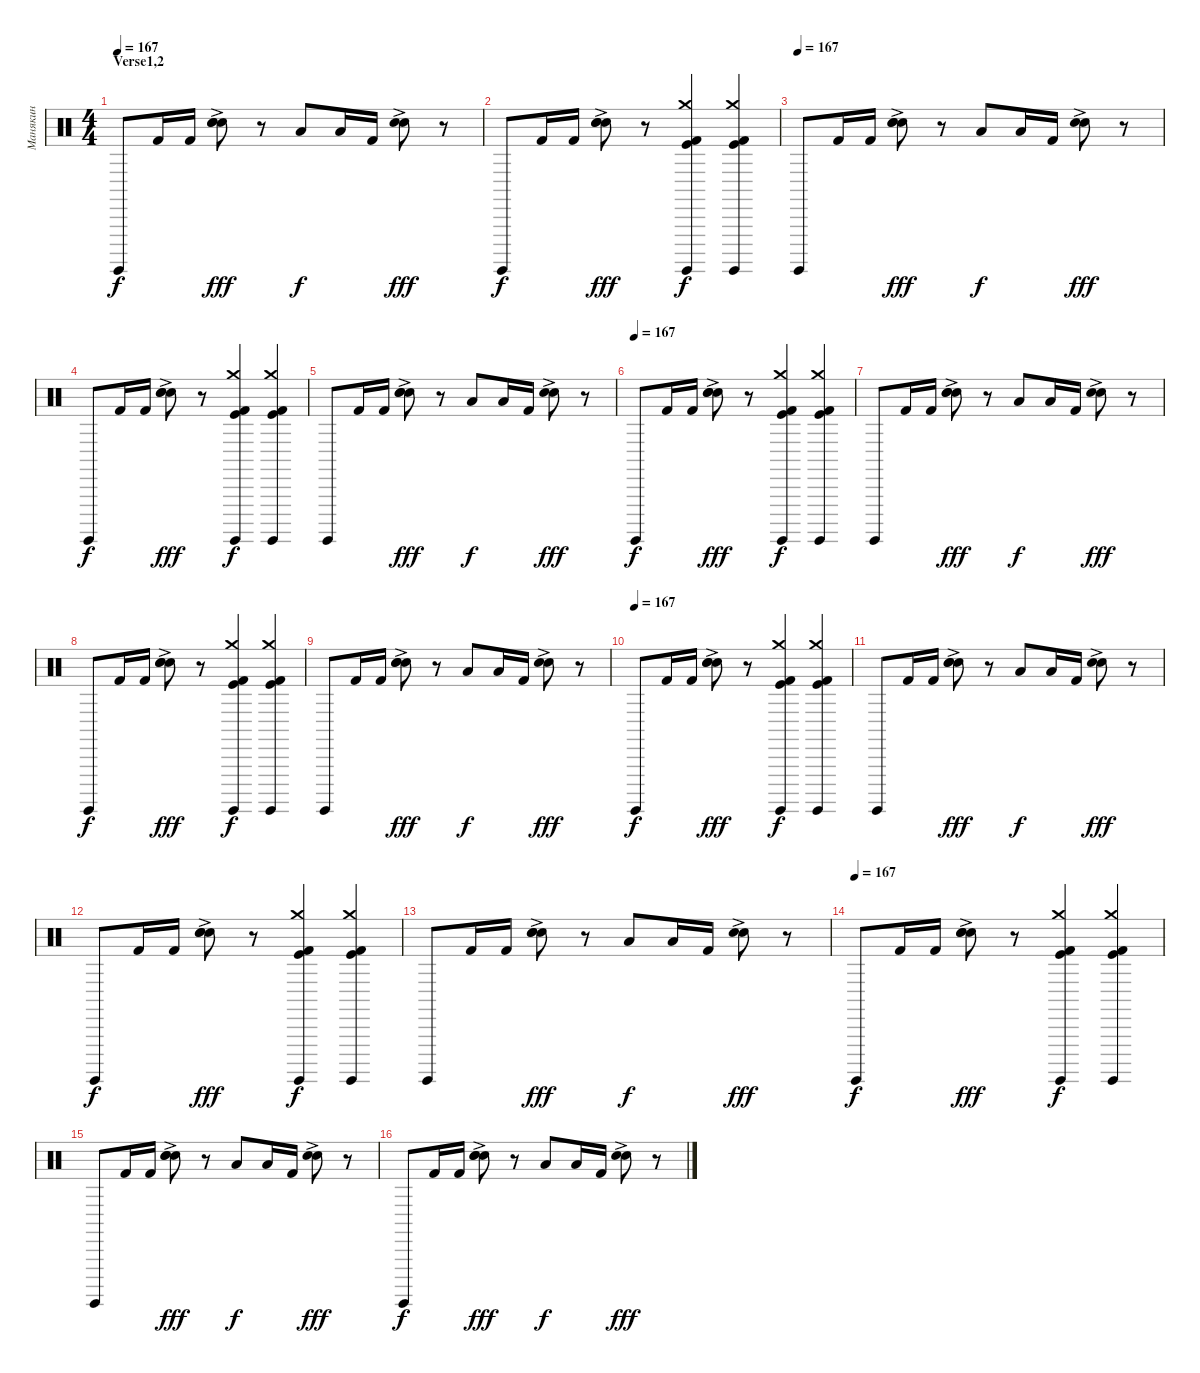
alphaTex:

\track ("Манякин" "Манякин") {instrument percussion}
\staff {score}
\articulation defaults
\ts (4 4)
\section ("" "Verse1,2")
\tempo 167
\clef neutral
\ks c "Surdo (hit)".8{dy f} "Kick (hit) 2".16 "Kick (hit) 2".16
("Electric Snare (hit)"{ac} "Snare (hit) 2" "Electric Snare (hit)").8{dy fff} r.8 "Low Tom (hit)".8{dy f} "Low Tom (hit)".16 "Kick (hit) 2".16 ("Electric Snare (hit)"{ac} "Snare (hit) 2").8{dy fff} r.8 |
"Surdo (hit)".8{dy f} "Kick (hit) 2".16 "Kick (hit) 2".16 ("Electric Snare (hit)"{ac} "Snare (hit) 2" "Electric Snare (hit)").8{dy fff} r.8 ("Kick (hit)" "Crash medium (hit)" "Kick (hit) 2" "Surdo (hit)").4{dy f} ("Kick (hit)" "Crash medium (hit)" "Kick (hit) 2" "Surdo (hit)").4 |
\tempo (167)
"Surdo (hit)".8 "Kick (hit) 2".16 "Kick (hit) 2".16 ("Electric Snare (hit)"{ac} "Snare (hit) 2" "Electric Snare (hit)").8{dy fff} r.8 "Low Tom (hit)".8{dy f} "Low Tom (hit)".16 "Kick (hit) 2".16 ("Electric Snare (hit)"{ac} "Snare (hit) 2").8{dy fff} r.8 |
"Surdo (hit)".8{dy f} "Kick (hit) 2".16 "Kick (hit) 2".16 ("Electric Snare (hit)"{ac} "Snare (hit) 2" "Electric Snare (hit)").8{dy fff} r.8 ("Kick (hit)" "Crash medium (hit)" "Kick (hit) 2" "Surdo (hit)").4{dy f} ("Kick (hit)" "Crash medium (hit)" "Kick (hit) 2" "Surdo (hit)").4 |
"Surdo (hit)".8 "Kick (hit) 2".16 "Kick (hit) 2".16 ("Electric Snare (hit)"{ac} "Snare (hit) 2" "Electric Snare (hit)").8{dy fff} r.8 "Low Tom (hit)".8{dy f} "Low Tom (hit)".16 "Kick (hit) 2".16 ("Electric Snare (hit)"{ac} "Snare (hit) 2").8{dy fff} r.8 |
\tempo (167)
"Surdo (hit)".8{dy f} "Kick (hit) 2".16 "Kick (hit) 2".16 ("Electric Snare (hit)"{ac} "Snare (hit) 2" "Electric Snare (hit)").8{dy fff} r.8 ("Kick (hit)" "Crash medium (hit)" "Kick (hit) 2" "Surdo (hit)").4{dy f} ("Kick (hit)" "Crash medium (hit)" "Kick (hit) 2" "Surdo (hit)").4 |
"Surdo (hit)".8 "Kick (hit) 2".16 "Kick (hit) 2".16 ("Electric Snare (hit)"{ac} "Snare (hit) 2" "Electric Snare (hit)").8{dy fff} r.8 "Low Tom (hit)".8{dy f} "Low Tom (hit)".16 "Kick (hit) 2".16 ("Electric Snare (hit)"{ac} "Snare (hit) 2").8{dy fff} r.8 |
"Surdo (hit)".8{dy f} "Kick (hit) 2".16 "Kick (hit) 2".16 ("Electric Snare (hit)"{ac} "Snare (hit) 2" "Electric Snare (hit)").8{dy fff} r.8 ("Kick (hit)" "Crash medium (hit)" "Kick (hit) 2" "Surdo (hit)").4{dy f} ("Kick (hit)" "Crash medium (hit)" "Kick (hit) 2" "Surdo (hit)").4 |
"Surdo (hit)".8 "Kick (hit) 2".16 "Kick (hit) 2".16 ("Electric Snare (hit)"{ac} "Snare (hit) 2" "Electric Snare (hit)").8{dy fff} r.8 "Low Tom (hit)".8{dy f} "Low Tom (hit)".16 "Kick (hit) 2".16 ("Electric Snare (hit)"{ac} "Snare (hit) 2").8{dy fff} r.8 |
\tempo (167)
"Surdo (hit)".8{dy f} "Kick (hit) 2".16 "Kick (hit) 2".16 ("Electric Snare (hit)"{ac} "Snare (hit) 2" "Electric Snare (hit)").8{dy fff} r.8 ("Kick (hit)" "Crash medium (hit)" "Kick (hit) 2" "Surdo (hit)").4{dy f} ("Kick (hit)" "Crash medium (hit)" "Kick (hit) 2" "Surdo (hit)").4 |
"Surdo (hit)".8 "Kick (hit) 2".16 "Kick (hit) 2".16 ("Electric Snare (hit)"{ac} "Snare (hit) 2" "Electric Snare (hit)").8{dy fff} r.8 "Low Tom (hit)".8{dy f} "Low Tom (hit)".16 "Kick (hit) 2".16 ("Electric Snare (hit)"{ac} "Snare (hit) 2").8{dy fff} r.8 |
"Surdo (hit)".8{dy f} "Kick (hit) 2".16 "Kick (hit) 2".16 ("Electric Snare (hit)"{ac} "Snare (hit) 2" "Electric Snare (hit)").8{dy fff} r.8 ("Kick (hit)" "Crash medium (hit)" "Kick (hit) 2" "Surdo (hit)").4{dy f} ("Kick (hit)" "Crash medium (hit)" "Kick (hit) 2" "Surdo (hit)").4 |
"Surdo (hit)".8 "Kick (hit) 2".16 "Kick (hit) 2".16 ("Electric Snare (hit)"{ac} "Snare (hit) 2" "Electric Snare (hit)").8{dy fff} r.8 "Low Tom (hit)".8{dy f} "Low Tom (hit)".16 "Kick (hit) 2".16 ("Electric Snare (hit)"{ac} "Snare (hit) 2").8{dy fff} r.8 |
\tempo (167)
"Surdo (hit)".8{dy f} "Kick (hit) 2".16 "Kick (hit) 2".16 ("Electric Snare (hit)"{ac} "Snare (hit) 2" "Electric Snare (hit)").8{dy fff} r.8 ("Kick (hit)" "Crash medium (hit)" "Kick (hit) 2" "Surdo (hit)").4{dy f} ("Kick (hit)" "Crash medium (hit)" "Kick (hit) 2" "Surdo (hit)").4 |
"Surdo (hit)".8 "Kick (hit) 2".16 "Kick (hit) 2".16 ("Electric Snare (hit)"{ac} "Snare (hit) 2" "Electric Snare (hit)").8{dy fff} r.8 "Low Tom (hit)".8{dy f} "Low Tom (hit)".16 "Kick (hit) 2".16 ("Electric Snare (hit)"{ac} "Snare (hit) 2").8{dy fff} r.8 |
"Surdo (hit)".8{dy f} "Kick (hit) 2".16 "Kick (hit) 2".16 ("Electric Snare (hit)"{ac} "Snare (hit) 2" "Electric Snare (hit)").8{dy fff} r.8 "Low Tom (hit)".8{dy f} "Low Tom (hit)".16 "Kick (hit) 2".16 ("Electric Snare (hit)"{ac} "Snare (hit) 2").8{dy fff} r.8
